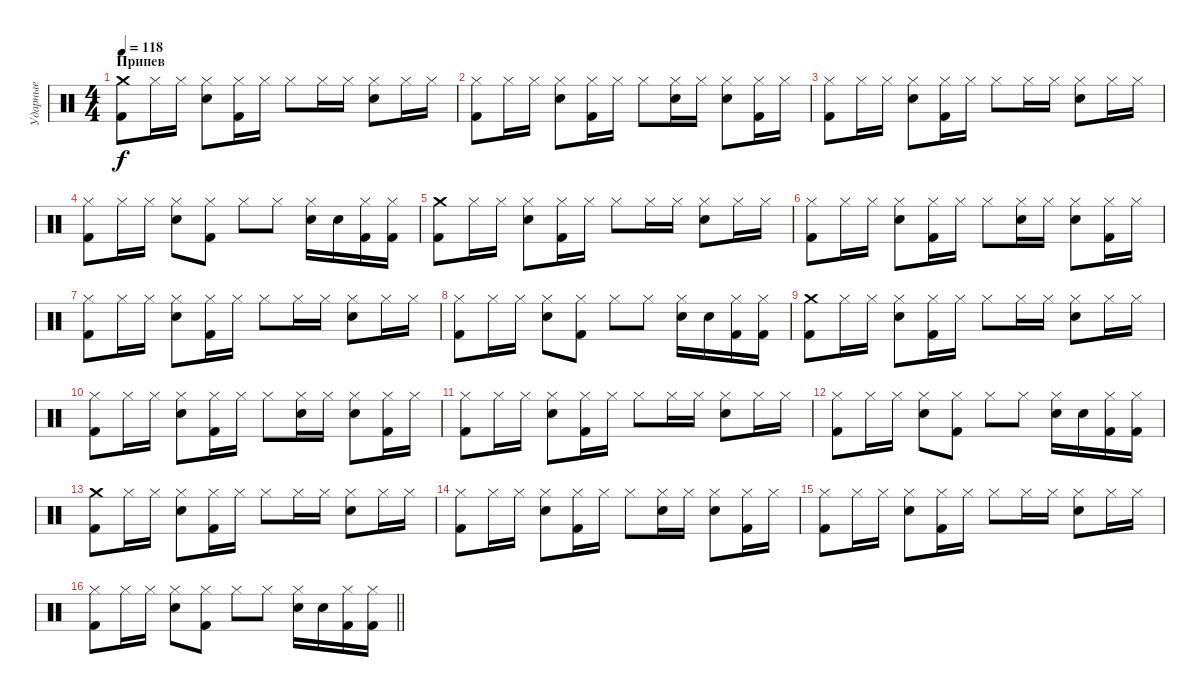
\track ("Ударные" "Ударные") {instrument percussion}
\staff {score}
\articulation defaults
\ts (4 4)
\section ("" "Припев")
\tempo 118
\clef neutral
\ks c
("Crash medium (hit)" "Kick (hit) 2").8{dy f} "Hi-Hat (closed)".16 "Hi-Hat (closed)".16 ("Hi-Hat (closed)" "Electric Snare (hit)").8 ("Hi-Hat (closed)" "Kick (hit) 2").16 "Hi-Hat (closed)".16 "Hi-Hat (closed)".8 "Hi-Hat (closed)".16 "Hi-Hat (closed)".16 ("Hi-Hat (closed)" "Electric Snare (hit)").8 "Hi-Hat (closed)".16 "Hi-Hat (closed)".16 |
("Hi-Hat (closed)" "Kick (hit) 2").8 "Hi-Hat (closed)".16 "Hi-Hat (closed)".16 ("Hi-Hat (closed)" "Electric Snare (hit)").8 ("Hi-Hat (closed)" "Kick (hit) 2").16 "Hi-Hat (closed)".16 "Hi-Hat (closed)".8 ("Hi-Hat (closed)" "Electric Snare (hit)").16 "Hi-Hat (closed)".16 ("Hi-Hat (closed)" "Electric Snare (hit)").8 ("Hi-Hat (closed)" "Kick (hit) 2").16 "Hi-Hat (closed)".16 |
("Hi-Hat (closed)" "Kick (hit) 2").8 "Hi-Hat (closed)".16 "Hi-Hat (closed)".16 ("Hi-Hat (closed)" "Electric Snare (hit)").8 ("Hi-Hat (closed)" "Kick (hit) 2").16 "Hi-Hat (closed)".16 "Hi-Hat (closed)".8 "Hi-Hat (closed)".16 "Hi-Hat (closed)".16 ("Hi-Hat (closed)" "Electric Snare (hit)").8 "Hi-Hat (closed)".16 "Hi-Hat (closed)".16 |
("Hi-Hat (closed)" "Kick (hit) 2").8 "Hi-Hat (closed)".16 "Hi-Hat (closed)".16 ("Hi-Hat (closed)" "Electric Snare (hit)").8 ("Hi-Hat (closed)" "Kick (hit) 2").8 "Hi-Hat (closed)".8 "Hi-Hat (closed)".8 ("Hi-Hat (closed)" "Electric Snare (hit)").16 "Electric Snare (hit)".16 ("Hi-Hat (closed)" "Kick (hit) 2").16 ("Hi-Hat (closed)" "Kick (hit) 2").16 |
("Crash medium (hit)" "Kick (hit) 2").8 "Hi-Hat (closed)".16 "Hi-Hat (closed)".16 ("Hi-Hat (closed)" "Electric Snare (hit)").8 ("Hi-Hat (closed)" "Kick (hit) 2").16 "Hi-Hat (closed)".16 "Hi-Hat (closed)".8 "Hi-Hat (closed)".16 "Hi-Hat (closed)".16 ("Hi-Hat (closed)" "Electric Snare (hit)").8 "Hi-Hat (closed)".16 "Hi-Hat (closed)".16 |
("Hi-Hat (closed)" "Kick (hit) 2").8 "Hi-Hat (closed)".16 "Hi-Hat (closed)".16 ("Hi-Hat (closed)" "Electric Snare (hit)").8 ("Hi-Hat (closed)" "Kick (hit) 2").16 "Hi-Hat (closed)".16 "Hi-Hat (closed)".8 ("Hi-Hat (closed)" "Electric Snare (hit)").16 "Hi-Hat (closed)".16 ("Hi-Hat (closed)" "Electric Snare (hit)").8 ("Hi-Hat (closed)" "Kick (hit) 2").16 "Hi-Hat (closed)".16 |
("Hi-Hat (closed)" "Kick (hit) 2").8 "Hi-Hat (closed)".16 "Hi-Hat (closed)".16 ("Hi-Hat (closed)" "Electric Snare (hit)").8 ("Hi-Hat (closed)" "Kick (hit) 2").16 "Hi-Hat (closed)".16 "Hi-Hat (closed)".8 "Hi-Hat (closed)".16 "Hi-Hat (closed)".16 ("Hi-Hat (closed)" "Electric Snare (hit)").8 "Hi-Hat (closed)".16 "Hi-Hat (closed)".16 |
("Hi-Hat (closed)" "Kick (hit) 2").8 "Hi-Hat (closed)".16 "Hi-Hat (closed)".16 ("Hi-Hat (closed)" "Electric Snare (hit)").8 ("Hi-Hat (closed)" "Kick (hit) 2").8 "Hi-Hat (closed)".8 "Hi-Hat (closed)".8 ("Hi-Hat (closed)" "Electric Snare (hit)").16 "Electric Snare (hit)".16 ("Hi-Hat (closed)" "Kick (hit) 2").16 ("Hi-Hat (closed)" "Kick (hit) 2").16 |
("Crash medium (hit)" "Kick (hit) 2").8 "Hi-Hat (closed)".16 "Hi-Hat (closed)".16 ("Hi-Hat (closed)" "Electric Snare (hit)").8 ("Hi-Hat (closed)" "Kick (hit) 2").16 "Hi-Hat (closed)".16 "Hi-Hat (closed)".8 "Hi-Hat (closed)".16 "Hi-Hat (closed)".16 ("Hi-Hat (closed)" "Electric Snare (hit)").8 "Hi-Hat (closed)".16 "Hi-Hat (closed)".16 |
("Hi-Hat (closed)" "Kick (hit) 2").8 "Hi-Hat (closed)".16 "Hi-Hat (closed)".16 ("Hi-Hat (closed)" "Electric Snare (hit)").8 ("Hi-Hat (closed)" "Kick (hit) 2").16 "Hi-Hat (closed)".16 "Hi-Hat (closed)".8 ("Hi-Hat (closed)" "Electric Snare (hit)").16 "Hi-Hat (closed)".16 ("Hi-Hat (closed)" "Electric Snare (hit)").8 ("Hi-Hat (closed)" "Kick (hit) 2").16 "Hi-Hat (closed)".16 |
("Hi-Hat (closed)" "Kick (hit) 2").8 "Hi-Hat (closed)".16 "Hi-Hat (closed)".16 ("Hi-Hat (closed)" "Electric Snare (hit)").8 ("Hi-Hat (closed)" "Kick (hit) 2").16 "Hi-Hat (closed)".16 "Hi-Hat (closed)".8 "Hi-Hat (closed)".16 "Hi-Hat (closed)".16 ("Hi-Hat (closed)" "Electric Snare (hit)").8 "Hi-Hat (closed)".16 "Hi-Hat (closed)".16 |
("Hi-Hat (closed)" "Kick (hit) 2").8 "Hi-Hat (closed)".16 "Hi-Hat (closed)".16 ("Hi-Hat (closed)" "Electric Snare (hit)").8 ("Hi-Hat (closed)" "Kick (hit) 2").8 "Hi-Hat (closed)".8 "Hi-Hat (closed)".8 ("Hi-Hat (closed)" "Electric Snare (hit)").16 "Electric Snare (hit)".16 ("Hi-Hat (closed)" "Kick (hit) 2").16 ("Hi-Hat (closed)" "Kick (hit) 2").16 |
("Crash medium (hit)" "Kick (hit) 2").8 "Hi-Hat (closed)".16 "Hi-Hat (closed)".16 ("Hi-Hat (closed)" "Electric Snare (hit)").8 ("Hi-Hat (closed)" "Kick (hit) 2").16 "Hi-Hat (closed)".16 "Hi-Hat (closed)".8 "Hi-Hat (closed)".16 "Hi-Hat (closed)".16 ("Hi-Hat (closed)" "Electric Snare (hit)").8 "Hi-Hat (closed)".16 "Hi-Hat (closed)".16 |
("Hi-Hat (closed)" "Kick (hit) 2").8 "Hi-Hat (closed)".16 "Hi-Hat (closed)".16 ("Hi-Hat (closed)" "Electric Snare (hit)").8 ("Hi-Hat (closed)" "Kick (hit) 2").16 "Hi-Hat (closed)".16 "Hi-Hat (closed)".8 ("Hi-Hat (closed)" "Electric Snare (hit)").16 "Hi-Hat (closed)".16 ("Hi-Hat (closed)" "Electric Snare (hit)").8 ("Hi-Hat (closed)" "Kick (hit) 2").16 "Hi-Hat (closed)".16 |
("Hi-Hat (closed)" "Kick (hit) 2").8 "Hi-Hat (closed)".16 "Hi-Hat (closed)".16 ("Hi-Hat (closed)" "Electric Snare (hit)").8 ("Hi-Hat (closed)" "Kick (hit) 2").16 "Hi-Hat (closed)".16 "Hi-Hat (closed)".8 "Hi-Hat (closed)".16 "Hi-Hat (closed)".16 ("Hi-Hat (closed)" "Electric Snare (hit)").8 "Hi-Hat (closed)".16 "Hi-Hat (closed)".16 |
\barLineRight lightlight
("Hi-Hat (closed)" "Kick (hit) 2").8 "Hi-Hat (closed)".16 "Hi-Hat (closed)".16 ("Hi-Hat (closed)" "Electric Snare (hit)").8 ("Hi-Hat (closed)" "Kick (hit) 2").8 "Hi-Hat (closed)".8 "Hi-Hat (closed)".8 ("Hi-Hat (closed)" "Electric Snare (hit)").16 "Electric Snare (hit)".16 ("Hi-Hat (closed)" "Kick (hit) 2").16 ("Hi-Hat (closed)" "Kick (hit) 2").16
